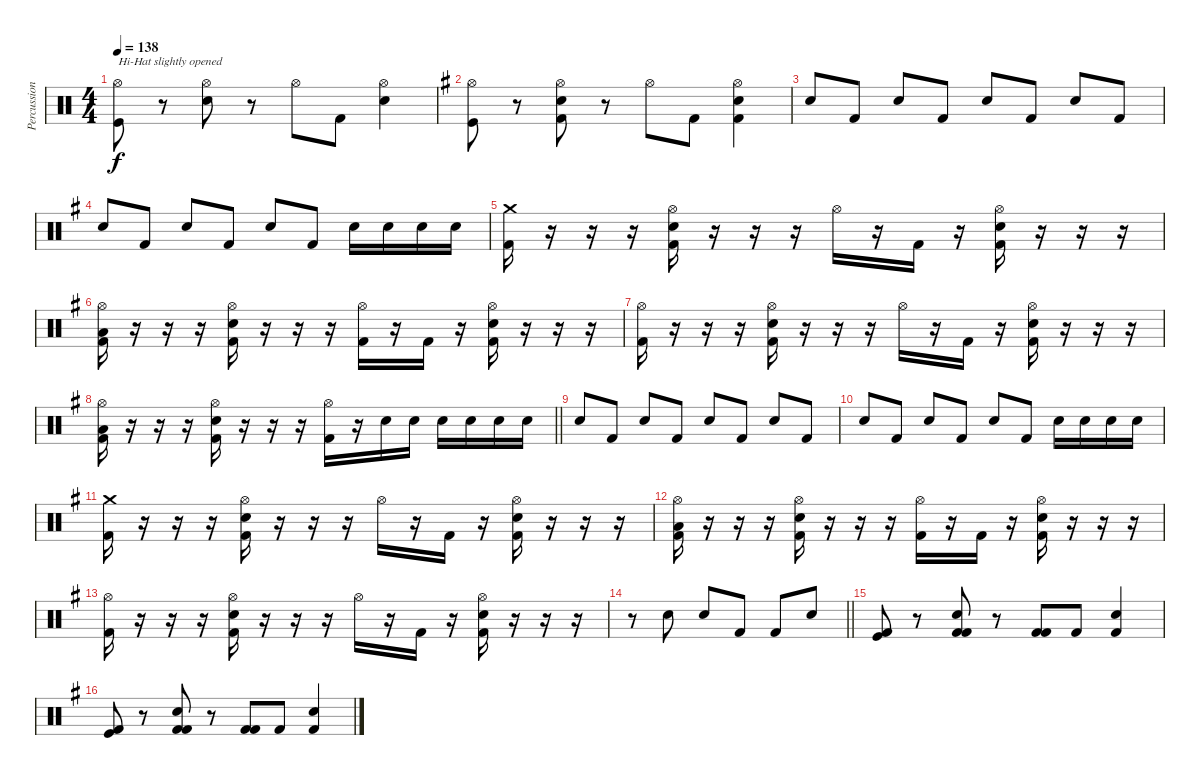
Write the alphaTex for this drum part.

\track ("Percussion" "Percussion") {instrument percussion}
\staff {score}
\articulation defaults
\ts (4 4)
\tempo 138
\clef neutral
\ks c
("Hi-Hat (open)" "Kick (hit)").8{txt "Hi-Hat slightly opened" dy f} r.8 ("Hi-Hat (open)" "Electric Snare (hit)").8 r.8 "Hi-Hat (open)".8 "Kick (hit) 2".8 ("Hi-Hat (open)" "Electric Snare (hit)").4 |
\ks g
("Hi-Hat (open)" "Kick (hit)").8 r.8 ("Hi-Hat (open)" "Electric Snare (hit)" "Kick (hit) 2").8 r.8 "Hi-Hat (open)".8 "Kick (hit) 2".8 ("Hi-Hat (open)" "Electric Snare (hit)" "Kick (hit) 2").4 |
"Electric Snare (hit)".8 "Kick (hit) 2".8 "Electric Snare (hit)".8 "Kick (hit) 2".8 "Electric Snare (hit)".8 "Kick (hit) 2".8 "Electric Snare (hit)".8 "Kick (hit) 2".8 |
"Electric Snare (hit)".8 "Kick (hit) 2".8 "Electric Snare (hit)".8 "Kick (hit) 2".8 "Electric Snare (hit)".8 "Kick (hit) 2".8 "Electric Snare (hit)".16 "Electric Snare (hit)".16 "Electric Snare (hit)".16 "Electric Snare (hit)".16 |
("Crash medium (hit)" "Kick (hit) 2").16 r.16 r.16 r.16 ("Hi-Hat (open)" "Electric Snare (hit)" "Kick (hit) 2").16 r.16 r.16 r.16 "Hi-Hat (open)".16 r.16 "Kick (hit) 2".16 r.16 ("Hi-Hat (open)" "Electric Snare (hit)" "Kick (hit) 2").16 r.16 r.16 r.16 |
("Hi-Hat (open)" "Low Tom (hit)" "Kick (hit) 2").16 r.16 r.16 r.16 ("Hi-Hat (open)" "Electric Snare (hit)" "Kick (hit) 2").16 r.16 r.16 r.16 ("Hi-Hat (open)" "Kick (hit) 2").16 r.16 "Kick (hit) 2".16 r.16 ("Hi-Hat (open)" "Electric Snare (hit)" "Kick (hit) 2").16 r.16 r.16 r.16 |
("Hi-Hat (open)" "Kick (hit) 2").16 r.16 r.16 r.16 ("Hi-Hat (open)" "Electric Snare (hit)" "Kick (hit) 2").16 r.16 r.16 r.16 "Hi-Hat (open)".16 r.16 "Kick (hit) 2".16 r.16 ("Hi-Hat (open)" "Electric Snare (hit)" "Kick (hit) 2").16 r.16 r.16 r.16 |
\barLineRight lightlight
("Hi-Hat (open)" "Low Tom (hit)" "Kick (hit) 2").16 r.16 r.16 r.16 ("Hi-Hat (open)" "Electric Snare (hit)" "Kick (hit) 2").16 r.16 r.16 r.16 ("Hi-Hat (open)" "Kick (hit) 2").16 r.16 "Electric Snare (hit)".16 "Electric Snare (hit)".16 "Electric Snare (hit)".16 "Electric Snare (hit)".16 "Electric Snare (hit)".16 "Electric Snare (hit)".16 |
"Electric Snare (hit)".8 "Kick (hit) 2".8 "Electric Snare (hit)".8 "Kick (hit) 2".8 "Electric Snare (hit)".8 "Kick (hit) 2".8 "Electric Snare (hit)".8 "Kick (hit) 2".8 |
"Electric Snare (hit)".8 "Kick (hit) 2".8 "Electric Snare (hit)".8 "Kick (hit) 2".8 "Electric Snare (hit)".8 "Kick (hit) 2".8 "Electric Snare (hit)".16 "Electric Snare (hit)".16 "Electric Snare (hit)".16 "Electric Snare (hit)".16 |
("Crash medium (hit)" "Kick (hit) 2").16 r.16 r.16 r.16 ("Hi-Hat (open)" "Electric Snare (hit)" "Kick (hit) 2").16 r.16 r.16 r.16 "Hi-Hat (open)".16 r.16 "Kick (hit) 2".16 r.16 ("Hi-Hat (open)" "Electric Snare (hit)" "Kick (hit) 2").16 r.16 r.16 r.16 |
("Hi-Hat (open)" "Low Tom (hit)" "Kick (hit) 2").16 r.16 r.16 r.16 ("Hi-Hat (open)" "Electric Snare (hit)" "Kick (hit) 2").16 r.16 r.16 r.16 ("Hi-Hat (open)" "Kick (hit) 2").16 r.16 "Kick (hit) 2".16 r.16 ("Hi-Hat (open)" "Electric Snare (hit)" "Kick (hit) 2").16 r.16 r.16 r.16 |
("Hi-Hat (open)" "Kick (hit) 2").16 r.16 r.16 r.16 ("Hi-Hat (open)" "Electric Snare (hit)" "Kick (hit) 2").16 r.16 r.16 r.16 "Hi-Hat (open)".16 r.16 "Kick (hit) 2".16 r.16 ("Hi-Hat (open)" "Electric Snare (hit)" "Kick (hit) 2").16 r.16 r.16 r.16 |
\barLineRight lightlight
r.8 "Electric Snare (hit)".8 "Electric Snare (hit)".8 "Kick (hit) 2".8 "Kick (hit) 2".8 "Electric Snare (hit)".8 |
("Kick (hit) 2" "Kick (hit)").8 r.8 ("Kick (hit) 2" "Electric Snare (hit)" "Kick (hit) 2").8 r.8 ("Kick (hit) 2" "Kick (hit) 2").8 "Kick (hit) 2".8 ("Kick (hit) 2" "Electric Snare (hit)").4 |
("Kick (hit) 2" "Kick (hit)").8 r.8 ("Kick (hit) 2" "Electric Snare (hit)" "Kick (hit) 2").8 r.8 ("Kick (hit) 2" "Kick (hit) 2").8 "Kick (hit) 2".8 ("Kick (hit) 2" "Electric Snare (hit)").4
